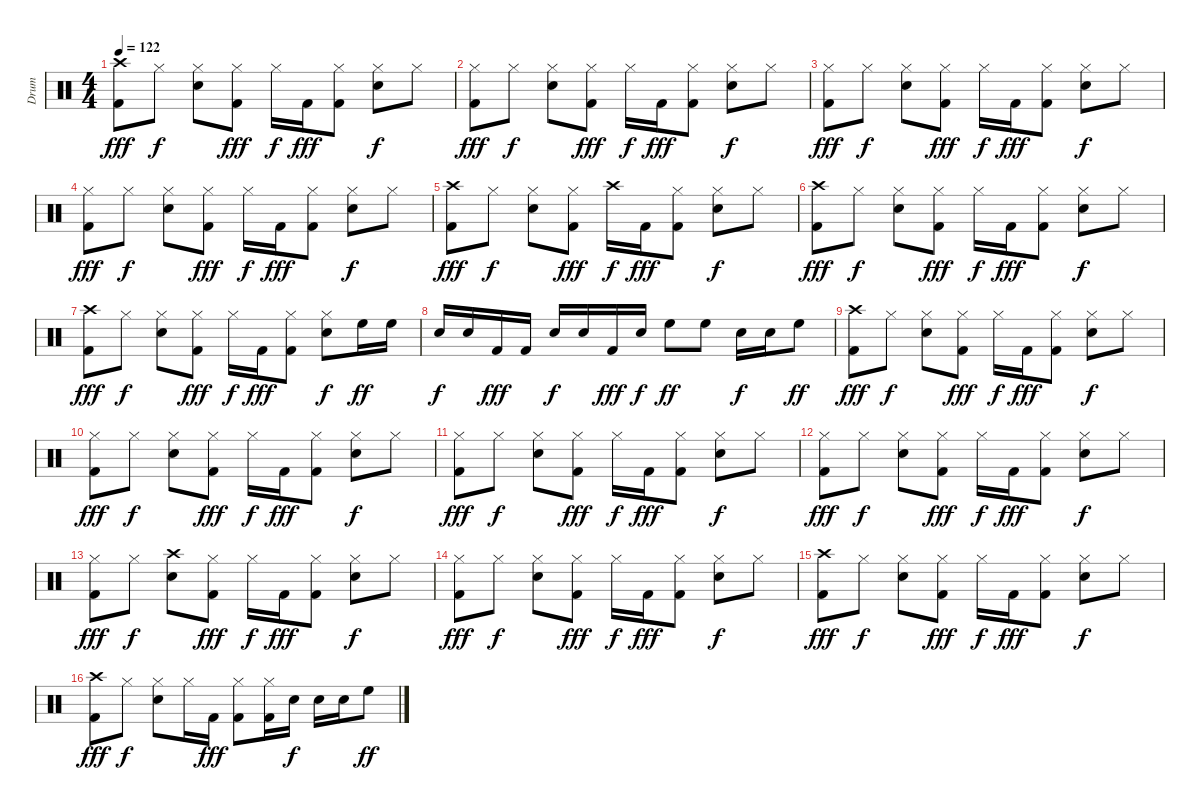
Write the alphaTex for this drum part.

\track ("Drum" "Drum") {instrument percussion}
\staff {score}
\articulation defaults
\ts (4 4)
\tempo 122
\clef neutral
\ks c
("Crash high (hit)" "Kick (hit) 2").8{dy fff} "Hi-Hat (closed)".8{dy f} ("Hi-Hat (closed)" "Snare (hit) 2").8 ("Hi-Hat (closed)" "Kick (hit) 2").8{dy fff} "Hi-Hat (closed)".16{dy f} "Kick (hit) 2".16{dy fff} ("Hi-Hat (closed)" "Kick (hit) 2").8 ("Hi-Hat (closed)" "Snare (hit) 2").8{dy f} "Hi-Hat (closed)".8 |
("Hi-Hat (closed)" "Kick (hit) 2").8{dy fff} "Hi-Hat (closed)".8{dy f} ("Hi-Hat (closed)" "Snare (hit) 2").8 ("Hi-Hat (closed)" "Kick (hit) 2").8{dy fff} "Hi-Hat (closed)".16{dy f} "Kick (hit) 2".16{dy fff} ("Hi-Hat (closed)" "Kick (hit) 2").8 ("Hi-Hat (closed)" "Snare (hit) 2").8{dy f} "Hi-Hat (closed)".8 |
("Hi-Hat (closed)" "Kick (hit) 2").8{dy fff} "Hi-Hat (closed)".8{dy f} ("Hi-Hat (closed)" "Snare (hit) 2").8 ("Hi-Hat (closed)" "Kick (hit) 2").8{dy fff} "Hi-Hat (closed)".16{dy f} "Kick (hit) 2".16{dy fff} ("Hi-Hat (closed)" "Kick (hit) 2").8 ("Hi-Hat (closed)" "Snare (hit) 2").8{dy f} "Hi-Hat (closed)".8 |
("Hi-Hat (closed)" "Kick (hit) 2").8{dy fff} "Hi-Hat (closed)".8{dy f} ("Hi-Hat (closed)" "Snare (hit) 2").8 ("Hi-Hat (closed)" "Kick (hit) 2").8{dy fff} "Hi-Hat (closed)".16{dy f} "Kick (hit) 2".16{dy fff} ("Hi-Hat (closed)" "Kick (hit) 2").8 ("Hi-Hat (closed)" "Snare (hit) 2").8{dy f} "Hi-Hat (closed)".8 |
("Crash high (hit)" "Kick (hit) 2").8{dy fff} "Hi-Hat (closed)".8{dy f} ("Hi-Hat (closed)" "Snare (hit) 2").8 ("Hi-Hat (closed)" "Kick (hit) 2").8{dy fff} "Crash high (hit)".16{dy f} "Kick (hit) 2".16{dy fff} ("Hi-Hat (closed)" "Kick (hit) 2").8 ("Hi-Hat (closed)" "Snare (hit) 2").8{dy f} "Hi-Hat (closed)".8 |
("Crash high (hit)" "Kick (hit) 2").8{dy fff} "Hi-Hat (closed)".8{dy f} ("Hi-Hat (closed)" "Snare (hit) 2").8 ("Hi-Hat (closed)" "Kick (hit) 2").8{dy fff} "Hi-Hat (closed)".16{dy f} "Kick (hit) 2".16{dy fff} ("Hi-Hat (closed)" "Kick (hit) 2").8 ("Hi-Hat (closed)" "Snare (hit) 2").8{dy f} "Hi-Hat (closed)".8 |
("Crash high (hit)" "Kick (hit) 2").8{dy fff} "Hi-Hat (closed)".8{dy f} ("Hi-Hat (closed)" "Snare (hit) 2").8 ("Hi-Hat (closed)" "Kick (hit) 2").8{dy fff} "Hi-Hat (closed)".16{dy f} "Kick (hit) 2".16{dy fff} ("Hi-Hat (closed)" "Kick (hit) 2").8 ("Hi-Hat (closed)" "Snare (hit) 2").8{dy f} "High Floor Tom (hit)".16{dy ff} "High Floor Tom (hit)".16 |
"Snare (hit) 2".16{dy f} "Snare (hit) 2".16 "Kick (hit) 2".16{dy fff} "Kick (hit) 2".16 "Snare (hit) 2".16{dy f} "Snare (hit) 2".16 "Kick (hit) 2".16{dy fff} "Snare (hit) 2".16{dy f} "High Floor Tom (hit)".8{dy ff} "High Floor Tom (hit)".8 "Snare (hit) 2".16{dy f} "Snare (hit) 2".16 "High Floor Tom (hit)".8{dy ff} |
("Crash high (hit)" "Kick (hit) 2").8{dy fff} "Hi-Hat (closed)".8{dy f} ("Hi-Hat (closed)" "Snare (hit) 2").8 ("Hi-Hat (closed)" "Kick (hit) 2").8{dy fff} "Hi-Hat (closed)".16{dy f} "Kick (hit) 2".16{dy fff} ("Hi-Hat (closed)" "Kick (hit) 2").8 ("Hi-Hat (closed)" "Snare (hit) 2").8{dy f} "Hi-Hat (closed)".8 |
("Hi-Hat (closed)" "Kick (hit) 2").8{dy fff} "Hi-Hat (closed)".8{dy f} ("Hi-Hat (closed)" "Snare (hit) 2").8 ("Hi-Hat (closed)" "Kick (hit) 2").8{dy fff} "Hi-Hat (closed)".16{dy f} "Kick (hit) 2".16{dy fff} ("Hi-Hat (closed)" "Kick (hit) 2").8 ("Hi-Hat (closed)" "Snare (hit) 2").8{dy f} "Hi-Hat (closed)".8 |
("Hi-Hat (closed)" "Kick (hit) 2").8{dy fff} "Hi-Hat (closed)".8{dy f} ("Hi-Hat (closed)" "Snare (hit) 2").8 ("Hi-Hat (closed)" "Kick (hit) 2").8{dy fff} "Hi-Hat (closed)".16{dy f} "Kick (hit) 2".16{dy fff} ("Hi-Hat (closed)" "Kick (hit) 2").8 ("Hi-Hat (closed)" "Snare (hit) 2").8{dy f} "Hi-Hat (closed)".8 |
("Hi-Hat (closed)" "Kick (hit) 2").8{dy fff} "Hi-Hat (closed)".8{dy f} ("Hi-Hat (closed)" "Snare (hit) 2").8 ("Hi-Hat (closed)" "Kick (hit) 2").8{dy fff} "Hi-Hat (closed)".16{dy f} "Kick (hit) 2".16{dy fff} ("Hi-Hat (closed)" "Kick (hit) 2").8 ("Hi-Hat (closed)" "Snare (hit) 2").8{dy f} "Hi-Hat (closed)".8 |
("Hi-Hat (closed)" "Kick (hit) 2").8{dy fff} "Hi-Hat (closed)".8{dy f} ("Crash high (hit)" "Snare (hit) 2").8 ("Hi-Hat (closed)" "Kick (hit) 2").8{dy fff} "Hi-Hat (closed)".16{dy f} "Kick (hit) 2".16{dy fff} ("Hi-Hat (closed)" "Kick (hit) 2").8 ("Hi-Hat (closed)" "Snare (hit) 2").8{dy f} "Hi-Hat (closed)".8 |
("Hi-Hat (closed)" "Kick (hit) 2").8{dy fff} "Hi-Hat (closed)".8{dy f} ("Hi-Hat (closed)" "Snare (hit) 2").8 ("Hi-Hat (closed)" "Kick (hit) 2").8{dy fff} "Hi-Hat (closed)".16{dy f} "Kick (hit) 2".16{dy fff} ("Hi-Hat (closed)" "Kick (hit) 2").8 ("Hi-Hat (closed)" "Snare (hit) 2").8{dy f} "Hi-Hat (closed)".8 |
("Crash high (hit)" "Kick (hit) 2").8{dy fff} "Hi-Hat (closed)".8{dy f} ("Hi-Hat (closed)" "Snare (hit) 2").8 ("Hi-Hat (closed)" "Kick (hit) 2").8{dy fff} "Hi-Hat (closed)".16{dy f} "Kick (hit) 2".16{dy fff} ("Hi-Hat (closed)" "Kick (hit) 2").8 ("Hi-Hat (closed)" "Snare (hit) 2").8{dy f} "Hi-Hat (closed)".8 |
("Crash high (hit)" "Kick (hit) 2").8{dy fff} "Hi-Hat (closed)".8{dy f} ("Hi-Hat (closed)" "Snare (hit) 2").8 "Hi-Hat (closed)".16 "Kick (hit) 2".16{dy fff} ("Hi-Hat (closed)" "Kick (hit) 2").8 ("Hi-Hat (closed)" "Kick (hit) 2").16 "Snare (hit) 2".16{dy f} "Snare (hit) 2".16 "Snare (hit) 2".16 "High Floor Tom (hit)".8{dy ff}
